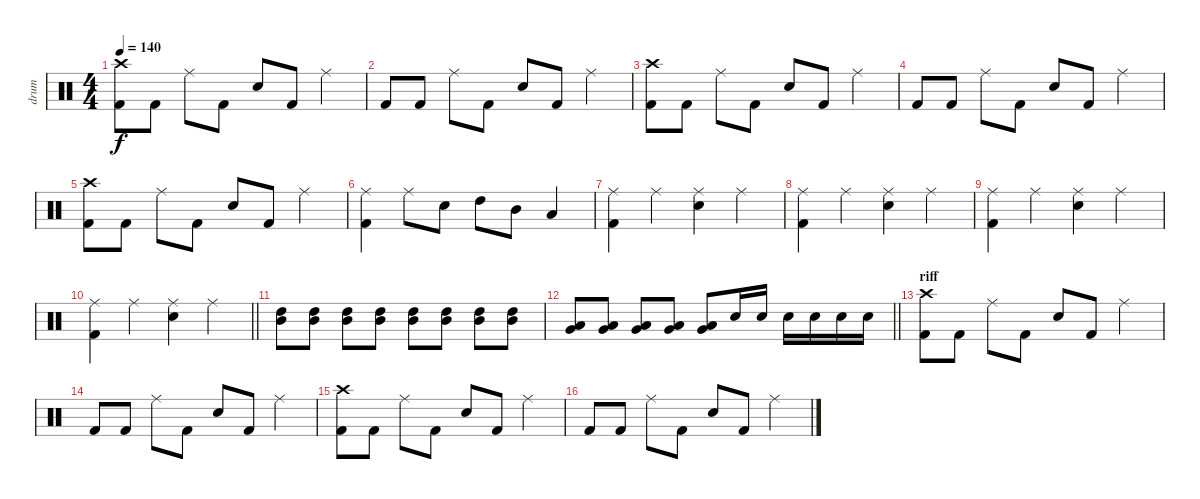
\track ("drum" "drum") {instrument percussion}
\staff {score}
\articulation defaults
\ts (4 4)
\tempo 140
\clef neutral
\ks c
("Crash high (hit)" "Kick (hit) 2").8{dy f} "Kick (hit) 2".8 "Ride (middle)".8 "Kick (hit) 2".8 "Electric Snare (hit)".8 "Kick (hit) 2".8 "Ride (middle)".4 |
"Kick (hit) 2".8 "Kick (hit) 2".8 "Ride (middle)".8 "Kick (hit) 2".8 "Electric Snare (hit)".8 "Kick (hit) 2".8 "Ride (middle)".4 |
("Crash high (hit)" "Kick (hit) 2").8 "Kick (hit) 2".8 "Ride (middle)".8 "Kick (hit) 2".8 "Electric Snare (hit)".8 "Kick (hit) 2".8 "Ride (middle)".4 |
"Kick (hit) 2".8 "Kick (hit) 2".8 "Ride (middle)".8 "Kick (hit) 2".8 "Electric Snare (hit)".8 "Kick (hit) 2".8 "Ride (middle)".4 |
("Crash high (hit)" "Kick (hit) 2").8 "Kick (hit) 2".8 "Ride (middle)".8 "Kick (hit) 2".8 "Electric Snare (hit)".8 "Kick (hit) 2".8 "Ride (middle)".4 |
("Ride (middle)" "Kick (hit) 2").4 "Ride (middle)".8 "Electric Snare (hit)".8 "High Tom (hit)".8 "Mid Tom (hit)".8 "Low Tom (hit)".4 |
("Ride (middle)" "Kick (hit) 2").4 "Ride (middle)".4 ("Ride (middle)" "Electric Snare (hit)").4 "Ride (middle)".4 |
("Ride (middle)" "Kick (hit) 2").4 "Ride (middle)".4 ("Ride (middle)" "Electric Snare (hit)").4 "Ride (middle)".4 |
("Ride (middle)" "Kick (hit) 2").4 "Ride (middle)".4 ("Ride (middle)" "Electric Snare (hit)").4 "Ride (middle)".4 |
\barLineRight lightlight
("Ride (middle)" "Kick (hit) 2").4 "Ride (middle)".4 ("Ride (middle)" "Electric Snare (hit)").4 "Ride (middle)".4 |
("High Tom (hit)" "Mid Tom (hit)").8 ("High Tom (hit)" "Mid Tom (hit)").8 ("High Tom (hit)" "Mid Tom (hit)").8 ("High Tom (hit)" "Mid Tom (hit)").8 ("High Tom (hit)" "Mid Tom (hit)").8 ("High Tom (hit)" "Mid Tom (hit)").8 ("High Tom (hit)" "Mid Tom (hit)").8 ("High Tom (hit)" "Mid Tom (hit)").8 |
\barLineRight lightlight
("Low Tom (hit)" "Very Low Tom (hit)").8 ("Low Tom (hit)" "Very Low Tom (hit)").8 ("Low Tom (hit)" "Very Low Tom (hit)").8 ("Low Tom (hit)" "Very Low Tom (hit)").8 ("Low Tom (hit)" "Very Low Tom (hit)").8 "Electric Snare (hit)".16 "Electric Snare (hit)".16 "Electric Snare (hit)".16 "Electric Snare (hit)".16 "Electric Snare (hit)".16 "Electric Snare (hit)".16 |
\section ("" "riff")
("Crash high (hit)" "Kick (hit) 2").8 "Kick (hit) 2".8 "Ride (middle)".8 "Kick (hit) 2".8 "Electric Snare (hit)".8 "Kick (hit) 2".8 "Ride (middle)".4 |
"Kick (hit) 2".8 "Kick (hit) 2".8 "Ride (middle)".8 "Kick (hit) 2".8 "Electric Snare (hit)".8 "Kick (hit) 2".8 "Ride (middle)".4 |
("Crash high (hit)" "Kick (hit) 2").8 "Kick (hit) 2".8 "Ride (middle)".8 "Kick (hit) 2".8 "Electric Snare (hit)".8 "Kick (hit) 2".8 "Ride (middle)".4 |
"Kick (hit) 2".8 "Kick (hit) 2".8 "Ride (middle)".8 "Kick (hit) 2".8 "Electric Snare (hit)".8 "Kick (hit) 2".8 "Ride (middle)".4
